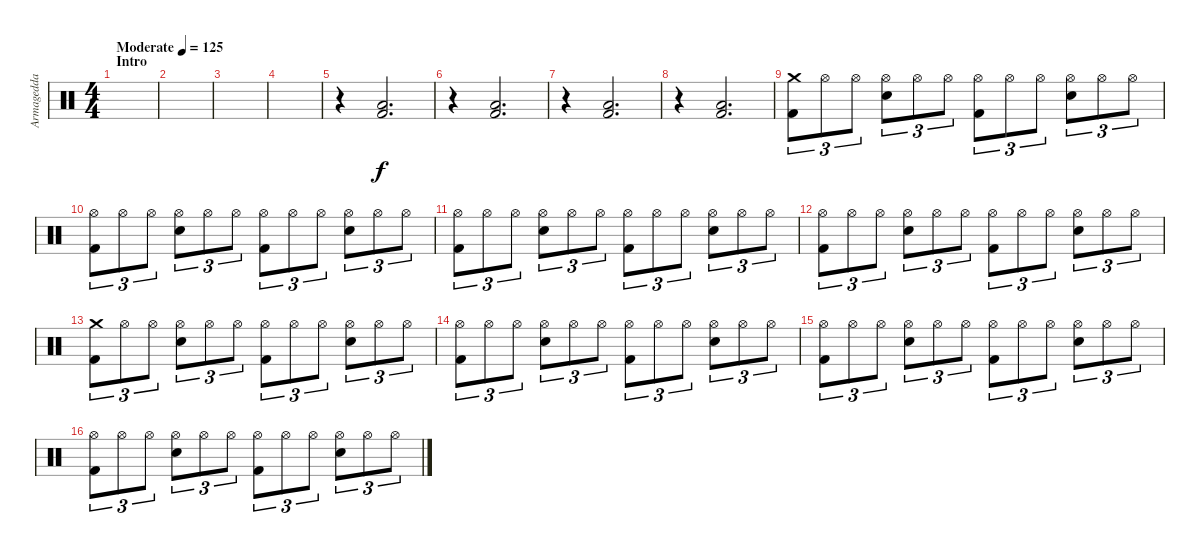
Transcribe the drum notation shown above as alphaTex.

\track ("Armagedda" "Armagedda") {instrument percussion}
\staff {score}
\articulation defaults
\ts (4 4)
\section ("" "Intro")
\tempo (125 "Moderate")
\clef neutral
\ks c
|
|
|
|
r.4 ("Low Tom (hit)" "Kick (hit) 2").2{d} |
r.4 ("Low Tom (hit)" "Kick (hit) 2").2{d} |
r.4 ("Low Tom (hit)" "Kick (hit) 2").2{d} |
r.4 ("Low Tom (hit)" "Kick (hit) 2").2{d} |
("Crash medium (hit)" "Kick (hit) 2").8{tu (3 2)} "Hi-Hat (open)".8{tu (3 2)} "Hi-Hat (open)".8{tu (3 2)} ("Hi-Hat (open)" "Electric Snare (hit)").8{tu (3 2)} "Hi-Hat (open)".8{tu (3 2)} "Hi-Hat (open)".8{tu (3 2)} ("Hi-Hat (open)" "Kick (hit) 2").8{tu (3 2)} "Hi-Hat (open)".8{tu (3 2)} "Hi-Hat (open)".8{tu (3 2)} ("Hi-Hat (open)" "Electric Snare (hit)").8{tu (3 2)} "Hi-Hat (open)".8{tu (3 2)} "Hi-Hat (open)".8{tu (3 2)} |
("Hi-Hat (open)" "Kick (hit) 2").8{tu (3 2)} "Hi-Hat (open)".8{tu (3 2)} "Hi-Hat (open)".8{tu (3 2)} ("Hi-Hat (open)" "Electric Snare (hit)").8{tu (3 2)} "Hi-Hat (open)".8{tu (3 2)} "Hi-Hat (open)".8{tu (3 2)} ("Hi-Hat (open)" "Kick (hit) 2").8{tu (3 2)} "Hi-Hat (open)".8{tu (3 2)} "Hi-Hat (open)".8{tu (3 2)} ("Hi-Hat (open)" "Electric Snare (hit)").8{tu (3 2)} "Hi-Hat (open)".8{tu (3 2)} "Hi-Hat (open)".8{tu (3 2)} |
("Hi-Hat (open)" "Kick (hit) 2").8{tu (3 2)} "Hi-Hat (open)".8{tu (3 2)} "Hi-Hat (open)".8{tu (3 2)} ("Hi-Hat (open)" "Electric Snare (hit)").8{tu (3 2)} "Hi-Hat (open)".8{tu (3 2)} "Hi-Hat (open)".8{tu (3 2)} ("Hi-Hat (open)" "Kick (hit) 2").8{tu (3 2)} "Hi-Hat (open)".8{tu (3 2)} "Hi-Hat (open)".8{tu (3 2)} ("Hi-Hat (open)" "Electric Snare (hit)").8{tu (3 2)} "Hi-Hat (open)".8{tu (3 2)} "Hi-Hat (open)".8{tu (3 2)} |
("Hi-Hat (open)" "Kick (hit) 2").8{tu (3 2)} "Hi-Hat (open)".8{tu (3 2)} "Hi-Hat (open)".8{tu (3 2)} ("Hi-Hat (open)" "Electric Snare (hit)").8{tu (3 2)} "Hi-Hat (open)".8{tu (3 2)} "Hi-Hat (open)".8{tu (3 2)} ("Hi-Hat (open)" "Kick (hit) 2").8{tu (3 2)} "Hi-Hat (open)".8{tu (3 2)} "Hi-Hat (open)".8{tu (3 2)} ("Hi-Hat (open)" "Electric Snare (hit)").8{tu (3 2)} "Hi-Hat (open)".8{tu (3 2)} "Hi-Hat (open)".8{tu (3 2)} |
("Crash medium (hit)" "Kick (hit) 2").8{tu (3 2)} "Hi-Hat (open)".8{tu (3 2)} "Hi-Hat (open)".8{tu (3 2)} ("Hi-Hat (open)" "Electric Snare (hit)").8{tu (3 2)} "Hi-Hat (open)".8{tu (3 2)} "Hi-Hat (open)".8{tu (3 2)} ("Hi-Hat (open)" "Kick (hit) 2").8{tu (3 2)} "Hi-Hat (open)".8{tu (3 2)} "Hi-Hat (open)".8{tu (3 2)} ("Hi-Hat (open)" "Electric Snare (hit)").8{tu (3 2)} "Hi-Hat (open)".8{tu (3 2)} "Hi-Hat (open)".8{tu (3 2)} |
("Hi-Hat (open)" "Kick (hit) 2").8{tu (3 2)} "Hi-Hat (open)".8{tu (3 2)} "Hi-Hat (open)".8{tu (3 2)} ("Hi-Hat (open)" "Electric Snare (hit)").8{tu (3 2)} "Hi-Hat (open)".8{tu (3 2)} "Hi-Hat (open)".8{tu (3 2)} ("Hi-Hat (open)" "Kick (hit) 2").8{tu (3 2)} "Hi-Hat (open)".8{tu (3 2)} "Hi-Hat (open)".8{tu (3 2)} ("Hi-Hat (open)" "Electric Snare (hit)").8{tu (3 2)} "Hi-Hat (open)".8{tu (3 2)} "Hi-Hat (open)".8{tu (3 2)} |
("Hi-Hat (open)" "Kick (hit) 2").8{tu (3 2)} "Hi-Hat (open)".8{tu (3 2)} "Hi-Hat (open)".8{tu (3 2)} ("Hi-Hat (open)" "Electric Snare (hit)").8{tu (3 2)} "Hi-Hat (open)".8{tu (3 2)} "Hi-Hat (open)".8{tu (3 2)} ("Hi-Hat (open)" "Kick (hit) 2").8{tu (3 2)} "Hi-Hat (open)".8{tu (3 2)} "Hi-Hat (open)".8{tu (3 2)} ("Hi-Hat (open)" "Electric Snare (hit)").8{tu (3 2)} "Hi-Hat (open)".8{tu (3 2)} "Hi-Hat (open)".8{tu (3 2)} |
("Hi-Hat (open)" "Kick (hit) 2").8{tu (3 2)} "Hi-Hat (open)".8{tu (3 2)} "Hi-Hat (open)".8{tu (3 2)} ("Hi-Hat (open)" "Electric Snare (hit)").8{tu (3 2)} "Hi-Hat (open)".8{tu (3 2)} "Hi-Hat (open)".8{tu (3 2)} ("Hi-Hat (open)" "Kick (hit) 2").8{tu (3 2)} "Hi-Hat (open)".8{tu (3 2)} "Hi-Hat (open)".8{tu (3 2)} ("Hi-Hat (open)" "Electric Snare (hit)").8{tu (3 2)} "Hi-Hat (open)".8{tu (3 2)} "Hi-Hat (open)".8{tu (3 2)}
